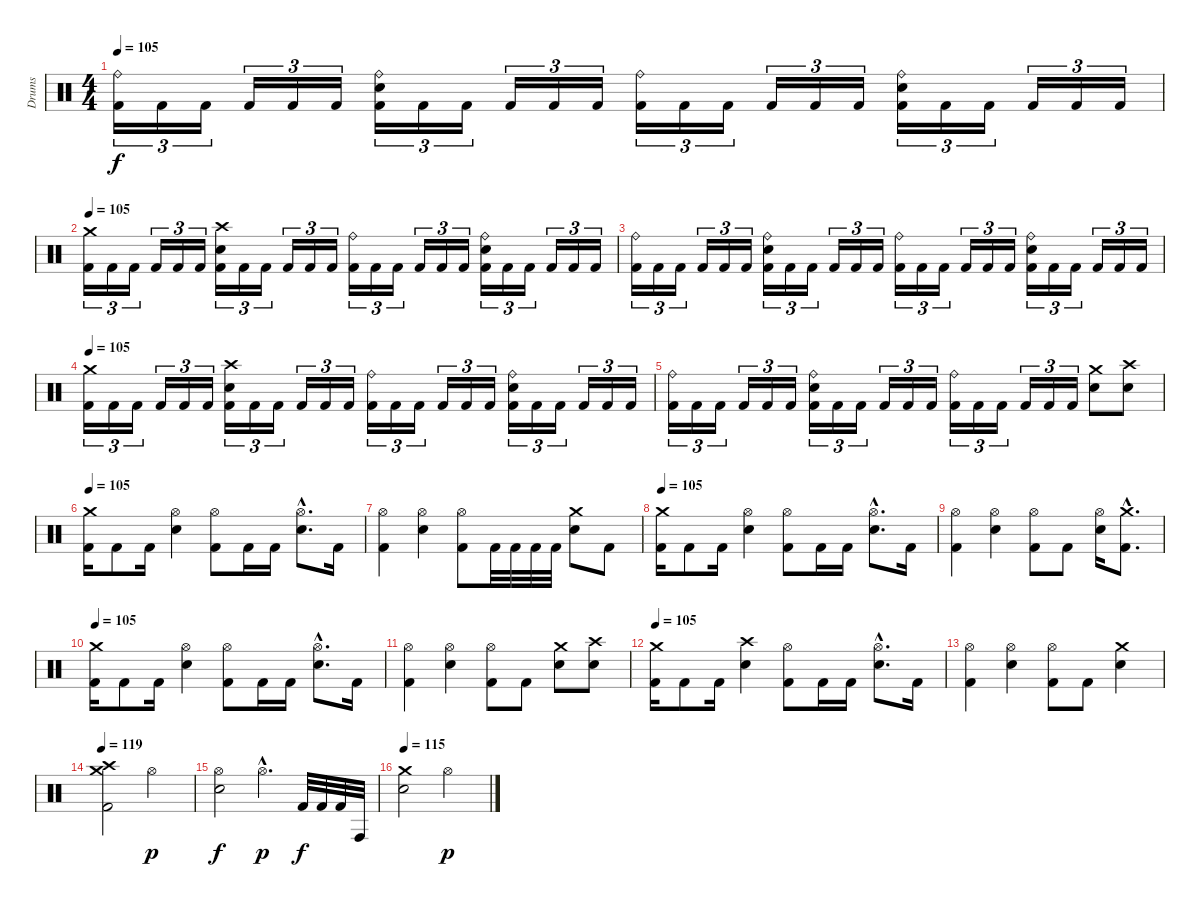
\track ("Drums" "Drums") {instrument percussion}
\staff {score}
\articulation defaults
\ts (4 4)
\tempo 105
\clef neutral
\ks c
("Ride (bell)" "Kick (hit) 2").16{tu (3 2) dy f} "Kick (hit) 2".16{tu (3 2)} "Kick (hit) 2".16{tu (3 2)} "Kick (hit) 2".16{tu (3 2)} "Kick (hit) 2".16{tu (3 2)} "Kick (hit) 2".16{tu (3 2)} ("Ride (bell)" "Snare (hit) 2" "Kick (hit) 2").16{tu (3 2)} "Kick (hit) 2".16{tu (3 2)} "Kick (hit) 2".16{tu (3 2)} "Kick (hit) 2".16{tu (3 2)} "Kick (hit) 2".16{tu (3 2)} "Kick (hit) 2".16{tu (3 2)} ("Ride (bell)" "Kick (hit) 2").16{tu (3 2)} "Kick (hit) 2".16{tu (3 2)} "Kick (hit) 2".16{tu (3 2)} "Kick (hit) 2".16{tu (3 2)} "Kick (hit) 2".16{tu (3 2)} "Kick (hit) 2".16{tu (3 2)} ("Ride (bell)" "Snare (hit) 2" "Kick (hit) 2").16{tu (3 2)} "Kick (hit) 2".16{tu (3 2)} "Kick (hit) 2".16{tu (3 2)} "Kick (hit) 2".16{tu (3 2)} "Kick (hit) 2".16{tu (3 2)} "Kick (hit) 2".16{tu (3 2)} |
\tempo 105
("Crash medium (hit)" "Kick (hit) 2").16{tu (3 2)} "Kick (hit) 2".16{tu (3 2)} "Kick (hit) 2".16{tu (3 2)} "Kick (hit) 2".16{tu (3 2)} "Kick (hit) 2".16{tu (3 2)} "Kick (hit) 2".16{tu (3 2)} ("Crash high (hit)" "Snare (hit) 2" "Kick (hit) 2").16{tu (3 2)} "Kick (hit) 2".16{tu (3 2)} "Kick (hit) 2".16{tu (3 2)} "Kick (hit) 2".16{tu (3 2)} "Kick (hit) 2".16{tu (3 2)} "Kick (hit) 2".16{tu (3 2)} ("Ride (bell)" "Kick (hit) 2").16{tu (3 2)} "Kick (hit) 2".16{tu (3 2)} "Kick (hit) 2".16{tu (3 2)} "Kick (hit) 2".16{tu (3 2)} "Kick (hit) 2".16{tu (3 2)} "Kick (hit) 2".16{tu (3 2)} ("Ride (bell)" "Snare (hit) 2" "Kick (hit) 2").16{tu (3 2)} "Kick (hit) 2".16{tu (3 2)} "Kick (hit) 2".16{tu (3 2)} "Kick (hit) 2".16{tu (3 2)} "Kick (hit) 2".16{tu (3 2)} "Kick (hit) 2".16{tu (3 2)} |
("Ride (bell)" "Kick (hit) 2").16{tu (3 2)} "Kick (hit) 2".16{tu (3 2)} "Kick (hit) 2".16{tu (3 2)} "Kick (hit) 2".16{tu (3 2)} "Kick (hit) 2".16{tu (3 2)} "Kick (hit) 2".16{tu (3 2)} ("Ride (bell)" "Snare (hit) 2" "Kick (hit) 2").16{tu (3 2)} "Kick (hit) 2".16{tu (3 2)} "Kick (hit) 2".16{tu (3 2)} "Kick (hit) 2".16{tu (3 2)} "Kick (hit) 2".16{tu (3 2)} "Kick (hit) 2".16{tu (3 2)} ("Ride (bell)" "Kick (hit) 2").16{tu (3 2)} "Kick (hit) 2".16{tu (3 2)} "Kick (hit) 2".16{tu (3 2)} "Kick (hit) 2".16{tu (3 2)} "Kick (hit) 2".16{tu (3 2)} "Kick (hit) 2".16{tu (3 2)} ("Ride (bell)" "Snare (hit) 2" "Kick (hit) 2").16{tu (3 2)} "Kick (hit) 2".16{tu (3 2)} "Kick (hit) 2".16{tu (3 2)} "Kick (hit) 2".16{tu (3 2)} "Kick (hit) 2".16{tu (3 2)} "Kick (hit) 2".16{tu (3 2)} |
\tempo 105
("Crash medium (hit)" "Kick (hit) 2").16{tu (3 2)} "Kick (hit) 2".16{tu (3 2)} "Kick (hit) 2".16{tu (3 2)} "Kick (hit) 2".16{tu (3 2)} "Kick (hit) 2".16{tu (3 2)} "Kick (hit) 2".16{tu (3 2)} ("Crash high (hit)" "Snare (hit) 2" "Kick (hit) 2").16{tu (3 2)} "Kick (hit) 2".16{tu (3 2)} "Kick (hit) 2".16{tu (3 2)} "Kick (hit) 2".16{tu (3 2)} "Kick (hit) 2".16{tu (3 2)} "Kick (hit) 2".16{tu (3 2)} ("Ride (bell)" "Kick (hit) 2").16{tu (3 2)} "Kick (hit) 2".16{tu (3 2)} "Kick (hit) 2".16{tu (3 2)} "Kick (hit) 2".16{tu (3 2)} "Kick (hit) 2".16{tu (3 2)} "Kick (hit) 2".16{tu (3 2)} ("Ride (bell)" "Snare (hit) 2" "Kick (hit) 2").16{tu (3 2)} "Kick (hit) 2".16{tu (3 2)} "Kick (hit) 2".16{tu (3 2)} "Kick (hit) 2".16{tu (3 2)} "Kick (hit) 2".16{tu (3 2)} "Kick (hit) 2".16{tu (3 2)} |
("Ride (bell)" "Kick (hit) 2").16{tu (3 2)} "Kick (hit) 2".16{tu (3 2)} "Kick (hit) 2".16{tu (3 2)} "Kick (hit) 2".16{tu (3 2)} "Kick (hit) 2".16{tu (3 2)} "Kick (hit) 2".16{tu (3 2)} ("Ride (bell)" "Snare (hit) 2" "Kick (hit) 2").16{tu (3 2)} "Kick (hit) 2".16{tu (3 2)} "Kick (hit) 2".16{tu (3 2)} "Kick (hit) 2".16{tu (3 2)} "Kick (hit) 2".16{tu (3 2)} "Kick (hit) 2".16{tu (3 2)} ("Ride (bell)" "Kick (hit) 2").16{tu (3 2)} "Kick (hit) 2".16{tu (3 2)} "Kick (hit) 2".16{tu (3 2)} "Kick (hit) 2".16{tu (3 2)} "Kick (hit) 2".16{tu (3 2)} "Kick (hit) 2".16{tu (3 2)} ("Crash medium (hit)" "Snare (hit) 2").8 ("Crash high (hit)" "Snare (hit) 2").8 |
\tempo 105
("Crash medium (hit)" "Kick (hit) 2").16 "Kick (hit) 2".8 "Kick (hit) 2".16 ("Hi-Hat (open)" "Snare (hit) 2").4 ("Hi-Hat (open)" "Kick (hit) 2").8 "Kick (hit) 2".16 "Kick (hit) 2".16 ("Hi-Hat (open)"{hac} "Snare (hit) 2"{hac}).8{d} "Kick (hit) 2".16 |
("Hi-Hat (open)" "Kick (hit) 2").4 ("Hi-Hat (open)" "Snare (hit) 2").4 ("Hi-Hat (open)" "Kick (hit) 2").8 "Kick (hit) 2".32 "Kick (hit) 2".32 "Kick (hit) 2".32 "Kick (hit) 2".32 ("Crash medium (hit)" "Snare (hit) 2").8 "Kick (hit) 2".8 |
\tempo 105
("Crash medium (hit)" "Kick (hit) 2").16 "Kick (hit) 2".8 "Kick (hit) 2".16 ("Hi-Hat (open)" "Snare (hit) 2").4 ("Hi-Hat (open)" "Kick (hit) 2").8 "Kick (hit) 2".16 "Kick (hit) 2".16 ("Hi-Hat (open)"{hac} "Snare (hit) 2"{hac}).8{d} "Kick (hit) 2".16 |
("Hi-Hat (open)" "Kick (hit) 2").4 ("Hi-Hat (open)" "Snare (hit) 2").4 ("Hi-Hat (open)" "Kick (hit) 2").8 "Kick (hit) 2".8 ("Hi-Hat (open)" "Snare (hit) 2").16 ("Crash medium (hit)"{hac} "Kick (hit) 2"{hac}).8{d} |
\tempo 105
("Crash medium (hit)" "Kick (hit) 2").16 "Kick (hit) 2".8 "Kick (hit) 2".16 ("Hi-Hat (open)" "Snare (hit) 2").4 ("Hi-Hat (open)" "Kick (hit) 2").8 "Kick (hit) 2".16 "Kick (hit) 2".16 ("Hi-Hat (open)"{hac} "Snare (hit) 2"{hac}).8{d} "Kick (hit) 2".16 |
("Hi-Hat (open)" "Kick (hit) 2").4 ("Hi-Hat (open)" "Snare (hit) 2").4 ("Hi-Hat (open)" "Kick (hit) 2").8 "Kick (hit) 2".8 ("Crash medium (hit)" "Snare (hit) 2").8 ("Crash high (hit)" "Snare (hit) 2").8 |
\tempo 105
("Crash medium (hit)" "Kick (hit) 2").16 "Kick (hit) 2".8 "Kick (hit) 2".16 ("Crash high (hit)" "Snare (hit) 2").4 ("Hi-Hat (open)" "Kick (hit) 2").8 "Kick (hit) 2".16 "Kick (hit) 2".16 ("Hi-Hat (open)"{hac} "Snare (hit) 2"{hac}).8{d} "Kick (hit) 2".16 |
("Hi-Hat (open)" "Kick (hit) 2").4 ("Hi-Hat (open)" "Snare (hit) 2").4 ("Hi-Hat (open)" "Kick (hit) 2").8 "Kick (hit) 2".8 ("Crash medium (hit)" "Snare (hit) 2").4 |
\tempo 119
("Crash high (hit)" "Crash medium (hit)" "Kick (hit) 2").2 "Hi-Hat (open)".2{dy p} |
("Snare (hit) 2" "Hi-Hat (open)").2{dy f} "Hi-Hat (open)"{hac}.4{d dy p} "Kick (hit) 2".32{dy f} "Kick (hit) 2".32 "Kick (hit) 2".32 "Conga high (hit)".32 |
\tempo 115
("Crash medium (hit)" "Snare (hit) 2").2 "Hi-Hat (open)".2{dy p}
